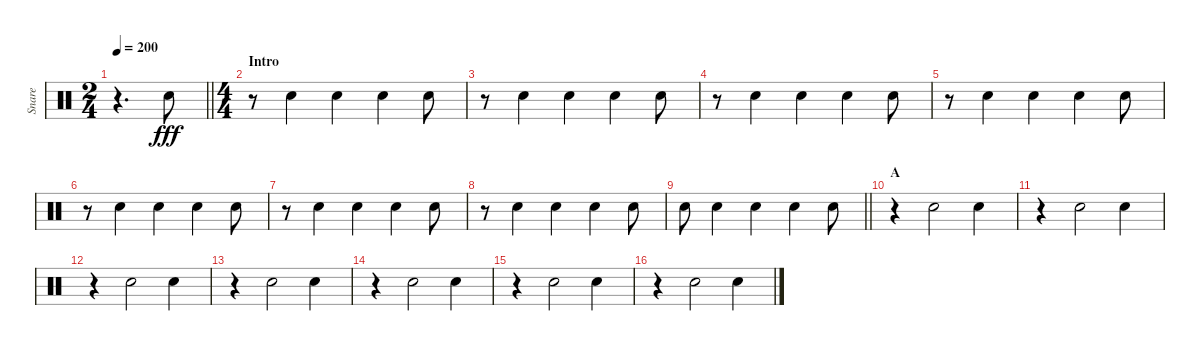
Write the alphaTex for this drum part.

\track ("Snare" "Snare") {instrument percussion}
\staff {score}
\articulation defaults
\ts (2 4)
\tempo 200
\clef neutral
\barLineRight lightlight
\ks c
r.4{d dy fff} "Snare (hit) 2".8 |
\ts (4 4)
\section ("" "Intro")
r.8 "Snare (hit) 2".4 "Snare (hit) 2".4 "Snare (hit) 2".4 "Snare (hit) 2".8 |
r.8 "Snare (hit) 2".4 "Snare (hit) 2".4 "Snare (hit) 2".4 "Snare (hit) 2".8 |
r.8 "Snare (hit) 2".4 "Snare (hit) 2".4 "Snare (hit) 2".4 "Snare (hit) 2".8 |
r.8 "Snare (hit) 2".4 "Snare (hit) 2".4 "Snare (hit) 2".4 "Snare (hit) 2".8 |
r.8 "Snare (hit) 2".4 "Snare (hit) 2".4 "Snare (hit) 2".4 "Snare (hit) 2".8 |
r.8 "Snare (hit) 2".4 "Snare (hit) 2".4 "Snare (hit) 2".4 "Snare (hit) 2".8 |
r.8 "Snare (hit) 2".4 "Snare (hit) 2".4 "Snare (hit) 2".4 "Snare (hit) 2".8 |
\barLineRight lightlight "Snare (hit) 2".8 "Snare (hit) 2".4 "Snare (hit) 2".4 "Snare (hit) 2".4 "Snare (hit) 2".8
|
\section ("" "A")
r.4 "Snare (hit) 2".2 "Snare (hit) 2".4 |
r.4 "Snare (hit) 2".2 "Snare (hit) 2".4 |
r.4 "Snare (hit) 2".2 "Snare (hit) 2".4 |
r.4 "Snare (hit) 2".2 "Snare (hit) 2".4 |
r.4 "Snare (hit) 2".2 "Snare (hit) 2".4 |
r.4 "Snare (hit) 2".2 "Snare (hit) 2".4 |
r.4 "Snare (hit) 2".2 "Snare (hit) 2".4
